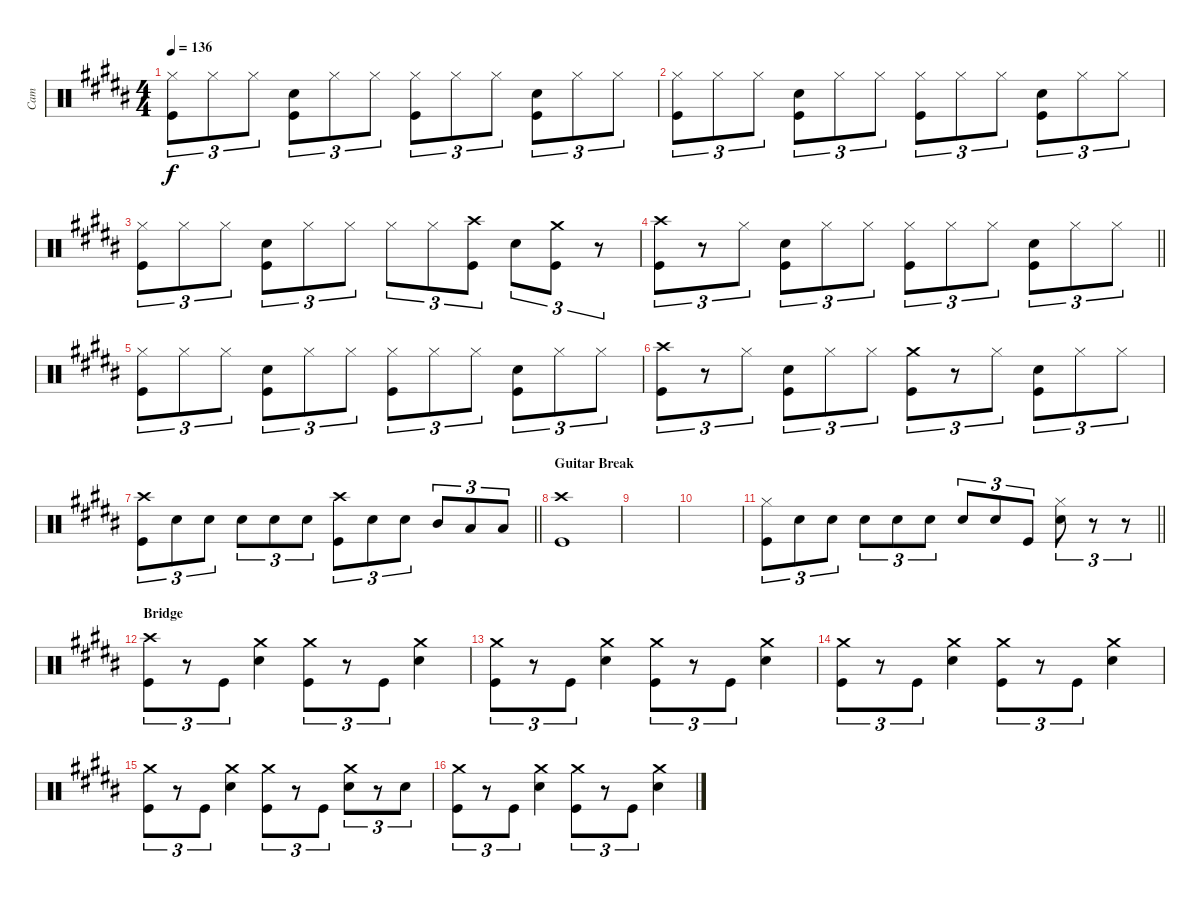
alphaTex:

\track ("Cam" "Cam") {instrument percussion}
\staff {score}
\articulation defaults
\ts (4 4)
\tempo 136
\clef neutral
\ks b
("Hi-Hat (closed)" "Kick (hit)").8{tu (3 2) dy f} "Hi-Hat (closed)".8{tu (3 2)} "Hi-Hat (closed)".8{tu (3 2)} ("Snare (hit) 2" "Kick (hit)").8{tu (3 2)} "Hi-Hat (closed)".8{tu (3 2)} "Hi-Hat (closed)".8{tu (3 2)} ("Hi-Hat (closed)" "Kick (hit)").8{tu (3 2)} "Hi-Hat (closed)".8{tu (3 2)} "Hi-Hat (closed)".8{tu (3 2)} ("Snare (hit) 2" "Kick (hit)").8{tu (3 2)} "Hi-Hat (closed)".8{tu (3 2)} "Hi-Hat (closed)".8{tu (3 2)} |
("Hi-Hat (closed)" "Kick (hit)").8{tu (3 2)} "Hi-Hat (closed)".8{tu (3 2)} "Hi-Hat (closed)".8{tu (3 2)} ("Snare (hit) 2" "Kick (hit)").8{tu (3 2)} "Hi-Hat (closed)".8{tu (3 2)} "Hi-Hat (closed)".8{tu (3 2)} ("Hi-Hat (closed)" "Kick (hit)").8{tu (3 2)} "Hi-Hat (closed)".8{tu (3 2)} "Hi-Hat (closed)".8{tu (3 2)} ("Snare (hit) 2" "Kick (hit)").8{tu (3 2)} "Hi-Hat (closed)".8{tu (3 2)} "Hi-Hat (closed)".8{tu (3 2)} |
("Hi-Hat (closed)" "Kick (hit)").8{tu (3 2)} "Hi-Hat (closed)".8{tu (3 2)} "Hi-Hat (closed)".8{tu (3 2)} ("Snare (hit) 2" "Kick (hit)").8{tu (3 2)} "Hi-Hat (closed)".8{tu (3 2)} "Hi-Hat (closed)".8{tu (3 2)} "Hi-Hat (closed)".8{tu (3 2)} "Hi-Hat (closed)".8{tu (3 2)} ("Crash high (hit)" "Kick (hit)").8{tu (3 2)} "Snare (hit) 2".8{tu (3 2)} ("Crash medium (hit)" "Kick (hit)").8{tu (3 2)} r.8{tu (3 2)} |
\barLineRight lightlight
("Crash high (hit)" "Kick (hit)").8{tu (3 2)} r.8{tu (3 2)} "Hi-Hat (closed)".8{tu (3 2)} ("Snare (hit) 2" "Kick (hit)").8{tu (3 2)} "Hi-Hat (closed)".8{tu (3 2)} "Hi-Hat (closed)".8{tu (3 2)} ("Hi-Hat (closed)" "Kick (hit)").8{tu (3 2)} "Hi-Hat (closed)".8{tu (3 2)} "Hi-Hat (closed)".8{tu (3 2)} ("Snare (hit) 2" "Kick (hit)").8{tu (3 2)} "Hi-Hat (closed)".8{tu (3 2)} "Hi-Hat (closed)".8{tu (3 2)} |
("Hi-Hat (closed)" "Kick (hit)").8{tu (3 2)} "Hi-Hat (closed)".8{tu (3 2)} "Hi-Hat (closed)".8{tu (3 2)} ("Snare (hit) 2" "Kick (hit)").8{tu (3 2)} "Hi-Hat (closed)".8{tu (3 2)} "Hi-Hat (closed)".8{tu (3 2)} ("Hi-Hat (closed)" "Kick (hit)").8{tu (3 2)} "Hi-Hat (closed)".8{tu (3 2)} "Hi-Hat (closed)".8{tu (3 2)} ("Snare (hit) 2" "Kick (hit)").8{tu (3 2)} "Hi-Hat (closed)".8{tu (3 2)} "Hi-Hat (closed)".8{tu (3 2)} |
("Crash high (hit)" "Kick (hit)").8{tu (3 2)} r.8{tu (3 2)} "Hi-Hat (closed)".8{tu (3 2)} ("Snare (hit) 2" "Kick (hit)").8{tu (3 2)} "Hi-Hat (closed)".8{tu (3 2)} "Hi-Hat (closed)".8{tu (3 2)} ("Crash medium (hit)" "Kick (hit)").8{tu (3 2)} r.8{tu (3 2)} "Hi-Hat (closed)".8{tu (3 2)} ("Snare (hit) 2" "Kick (hit)").8{tu (3 2)} "Hi-Hat (closed)".8{tu (3 2)} "Hi-Hat (closed)".8{tu (3 2)} |
\barLineRight lightlight
("Crash high (hit)" "Kick (hit)").8{tu (3 2)} "Snare (hit) 2".8{tu (3 2)} "Snare (hit) 2".8{tu (3 2)} "Snare (hit) 2".8{tu (3 2)} "Snare (hit) 2".8{tu (3 2)} "Snare (hit) 2".8{tu (3 2)} ("Crash high (hit)" "Kick (hit)").8{tu (3 2)} "Snare (hit) 2".8{tu (3 2)} "Snare (hit) 2".8{tu (3 2)} "Mid Tom (hit)".8{tu (3 2)} "Low Tom (hit)".8{tu (3 2)} "Low Tom (hit)".8{tu (3 2)} |
\section ("" "Guitar Break")
("Crash high (hit)" "Kick (hit)").1 |
|
|
\barLineRight lightlight
("Hi-Hat (closed)" "Kick (hit)").8{tu (3 2)} "Snare (hit) 2".8{tu (3 2)} "Snare (hit) 2".8{tu (3 2)} "Snare (hit) 2".8{tu (3 2)} "Snare (hit) 2".8{tu (3 2)} "Snare (hit) 2".8{tu (3 2)} "Snare (hit) 2".8{tu (3 2)} "Snare (hit) 2".8{tu (3 2)} "Kick (hit)".8{tu (3 2)} ("Snare (hit) 2" "Hi-Hat (closed)").8{tu (3 2)} r.8{tu (3 2)} r.8{tu (3 2)} |
\section ("" "Bridge")
("Crash high (hit)" "Kick (hit)").8{tu (3 2)} r.8{tu (3 2)} "Kick (hit)".8{tu (3 2)} ("Crash medium (hit)" "Snare (hit) 2").4 ("Crash medium (hit)" "Kick (hit)").8{tu (3 2)} r.8{tu (3 2)} "Kick (hit)".8{tu (3 2)} ("Crash medium (hit)" "Snare (hit) 2").4 |
("Crash medium (hit)" "Kick (hit)").8{tu (3 2)} r.8{tu (3 2)} "Kick (hit)".8{tu (3 2)} ("Crash medium (hit)" "Snare (hit) 2").4 ("Crash medium (hit)" "Kick (hit)").8{tu (3 2)} r.8{tu (3 2)} "Kick (hit)".8{tu (3 2)} ("Crash medium (hit)" "Snare (hit) 2").4 |
("Crash medium (hit)" "Kick (hit)").8{tu (3 2)} r.8{tu (3 2)} "Kick (hit)".8{tu (3 2)} ("Crash medium (hit)" "Snare (hit) 2").4 ("Crash medium (hit)" "Kick (hit)").8{tu (3 2)} r.8{tu (3 2)} "Kick (hit)".8{tu (3 2)} ("Crash medium (hit)" "Snare (hit) 2").4 |
("Crash medium (hit)" "Kick (hit)").8{tu (3 2)} r.8{tu (3 2)} "Kick (hit)".8{tu (3 2)} ("Crash medium (hit)" "Snare (hit) 2").4 ("Crash medium (hit)" "Kick (hit)").8{tu (3 2)} r.8{tu (3 2)} "Kick (hit)".8{tu (3 2)} ("Crash medium (hit)" "Snare (hit) 2").8{tu (3 2)} r.8{tu (3 2)} "Snare (hit) 2".8{tu (3 2)} |
("Crash medium (hit)" "Kick (hit)").8{tu (3 2)} r.8{tu (3 2)} "Kick (hit)".8{tu (3 2)} ("Crash medium (hit)" "Snare (hit) 2").4 ("Crash medium (hit)" "Kick (hit)").8{tu (3 2)} r.8{tu (3 2)} "Kick (hit)".8{tu (3 2)} ("Crash medium (hit)" "Snare (hit) 2").4
